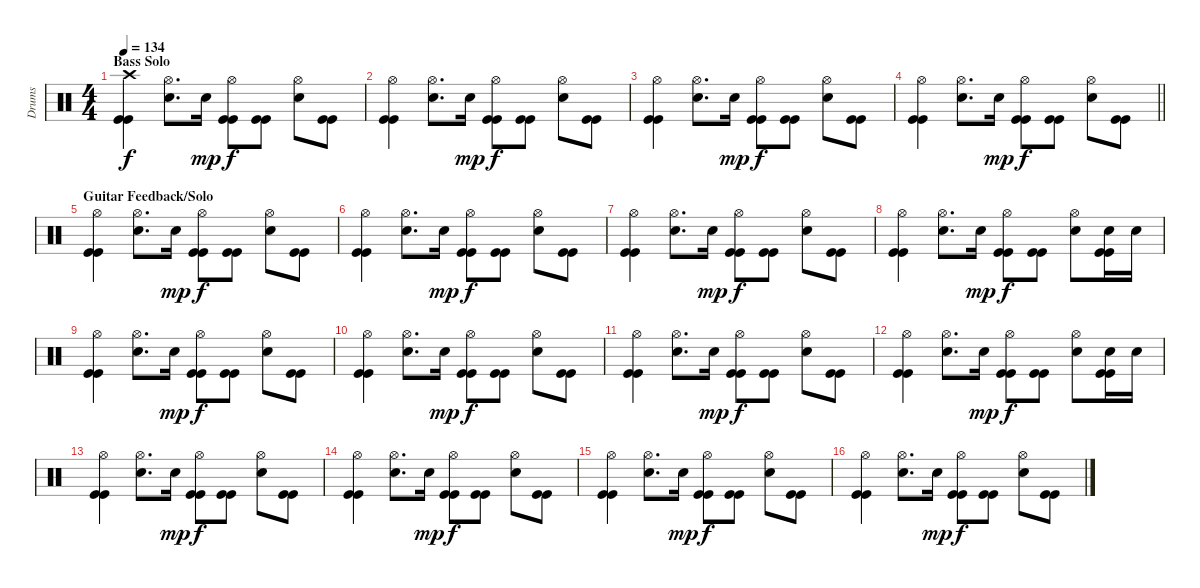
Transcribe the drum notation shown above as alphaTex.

\track ("Drums" "Drums") {instrument percussion}
\staff {score}
\articulation defaults
\ts (4 4)
\section ("" "Bass Solo")
\tempo 134
\clef neutral
\ks c
("Crash high (hit)" "Kick (hit)" "Kick (hit)").4{dy f} ("Hi-Hat (open)" "Electric Snare (hit)").8{d} "Electric Snare (hit)".16{dy mp} ("Hi-Hat (open)" "Kick (hit)" "Kick (hit)").8{dy f} ("Kick (hit)" "Kick (hit)").8 ("Hi-Hat (open)" "Electric Snare (hit)").8 ("Kick (hit)" "Kick (hit)").8 |
("Hi-Hat (open)" "Kick (hit)" "Kick (hit)").4 ("Hi-Hat (open)" "Electric Snare (hit)").8{d} "Electric Snare (hit)".16{dy mp} ("Hi-Hat (open)" "Kick (hit)" "Kick (hit)").8{dy f} ("Kick (hit)" "Kick (hit)").8 ("Hi-Hat (open)" "Electric Snare (hit)").8 ("Kick (hit)" "Kick (hit)").8 |
("Hi-Hat (open)" "Kick (hit)" "Kick (hit)").4 ("Hi-Hat (open)" "Electric Snare (hit)").8{d} "Electric Snare (hit)".16{dy mp} ("Hi-Hat (open)" "Kick (hit)" "Kick (hit)").8{dy f} ("Kick (hit)" "Kick (hit)").8 ("Hi-Hat (open)" "Electric Snare (hit)").8 ("Kick (hit)" "Kick (hit)").8 |
\barLineRight lightlight
("Hi-Hat (open)" "Kick (hit)" "Kick (hit)").4 ("Hi-Hat (open)" "Electric Snare (hit)").8{d} "Electric Snare (hit)".16{dy mp} ("Hi-Hat (open)" "Kick (hit)" "Kick (hit)").8{dy f} ("Kick (hit)" "Kick (hit)").8 ("Hi-Hat (open)" "Electric Snare (hit)").8 ("Kick (hit)" "Kick (hit)").8 |
\section ("" "Guitar Feedback/Solo")
("Hi-Hat (open)" "Kick (hit)" "Kick (hit)").4 ("Hi-Hat (open)" "Electric Snare (hit)").8{d} "Electric Snare (hit)".16{dy mp} ("Hi-Hat (open)" "Kick (hit)" "Kick (hit)").8{dy f} ("Kick (hit)" "Kick (hit)").8 ("Hi-Hat (open)" "Electric Snare (hit)").8 ("Kick (hit)" "Kick (hit)").8 |
("Hi-Hat (open)" "Kick (hit)" "Kick (hit)").4 ("Hi-Hat (open)" "Electric Snare (hit)").8{d} "Electric Snare (hit)".16{dy mp} ("Hi-Hat (open)" "Kick (hit)" "Kick (hit)").8{dy f} ("Kick (hit)" "Kick (hit)").8 ("Hi-Hat (open)" "Electric Snare (hit)").8 ("Kick (hit)" "Kick (hit)").8 |
("Hi-Hat (open)" "Kick (hit)" "Kick (hit)").4 ("Hi-Hat (open)" "Electric Snare (hit)").8{d} "Electric Snare (hit)".16{dy mp} ("Hi-Hat (open)" "Kick (hit)" "Kick (hit)").8{dy f} ("Kick (hit)" "Kick (hit)").8 ("Hi-Hat (open)" "Electric Snare (hit)").8 ("Kick (hit)" "Kick (hit)").8 |
("Hi-Hat (open)" "Kick (hit)" "Kick (hit)").4 ("Hi-Hat (open)" "Electric Snare (hit)").8{d} "Electric Snare (hit)".16{dy mp} ("Hi-Hat (open)" "Kick (hit)" "Kick (hit)").8{dy f} ("Kick (hit)" "Kick (hit)").8 ("Hi-Hat (open)" "Electric Snare (hit)").8 ("Electric Snare (hit)" "Kick (hit)" "Kick (hit)").16 "Electric Snare (hit)".16 |
("Hi-Hat (open)" "Kick (hit)" "Kick (hit)").4 ("Hi-Hat (open)" "Electric Snare (hit)").8{d} "Electric Snare (hit)".16{dy mp} ("Hi-Hat (open)" "Kick (hit)" "Kick (hit)").8{dy f} ("Kick (hit)" "Kick (hit)").8 ("Hi-Hat (open)" "Electric Snare (hit)").8 ("Kick (hit)" "Kick (hit)").8 |
("Hi-Hat (open)" "Kick (hit)" "Kick (hit)").4 ("Hi-Hat (open)" "Electric Snare (hit)").8{d} "Electric Snare (hit)".16{dy mp} ("Hi-Hat (open)" "Kick (hit)" "Kick (hit)").8{dy f} ("Kick (hit)" "Kick (hit)").8 ("Hi-Hat (open)" "Electric Snare (hit)").8 ("Kick (hit)" "Kick (hit)").8 |
("Hi-Hat (open)" "Kick (hit)" "Kick (hit)").4 ("Hi-Hat (open)" "Electric Snare (hit)").8{d} "Electric Snare (hit)".16{dy mp} ("Hi-Hat (open)" "Kick (hit)" "Kick (hit)").8{dy f} ("Kick (hit)" "Kick (hit)").8 ("Hi-Hat (open)" "Electric Snare (hit)").8 ("Kick (hit)" "Kick (hit)").8 |
("Hi-Hat (open)" "Kick (hit)" "Kick (hit)").4 ("Hi-Hat (open)" "Electric Snare (hit)").8{d} "Electric Snare (hit)".16{dy mp} ("Hi-Hat (open)" "Kick (hit)" "Kick (hit)").8{dy f} ("Kick (hit)" "Kick (hit)").8 ("Hi-Hat (open)" "Electric Snare (hit)").8 ("Electric Snare (hit)" "Kick (hit)" "Kick (hit)").16 "Electric Snare (hit)".16 |
("Hi-Hat (open)" "Kick (hit)" "Kick (hit)").4 ("Hi-Hat (open)" "Electric Snare (hit)").8{d} "Electric Snare (hit)".16{dy mp} ("Hi-Hat (open)" "Kick (hit)" "Kick (hit)").8{dy f} ("Kick (hit)" "Kick (hit)").8 ("Hi-Hat (open)" "Electric Snare (hit)").8 ("Kick (hit)" "Kick (hit)").8 |
("Hi-Hat (open)" "Kick (hit)" "Kick (hit)").4 ("Hi-Hat (open)" "Electric Snare (hit)").8{d} "Electric Snare (hit)".16{dy mp} ("Hi-Hat (open)" "Kick (hit)" "Kick (hit)").8{dy f} ("Kick (hit)" "Kick (hit)").8 ("Hi-Hat (open)" "Electric Snare (hit)").8 ("Kick (hit)" "Kick (hit)").8 |
("Hi-Hat (open)" "Kick (hit)" "Kick (hit)").4 ("Hi-Hat (open)" "Electric Snare (hit)").8{d} "Electric Snare (hit)".16{dy mp} ("Hi-Hat (open)" "Kick (hit)" "Kick (hit)").8{dy f} ("Kick (hit)" "Kick (hit)").8 ("Hi-Hat (open)" "Electric Snare (hit)").8 ("Kick (hit)" "Kick (hit)").8 |
("Hi-Hat (open)" "Kick (hit)" "Kick (hit)").4 ("Hi-Hat (open)" "Electric Snare (hit)").8{d} "Electric Snare (hit)".16{dy mp} ("Hi-Hat (open)" "Kick (hit)" "Kick (hit)").8{dy f} ("Kick (hit)" "Kick (hit)").8 ("Hi-Hat (open)" "Electric Snare (hit)").8 ("Kick (hit)" "Kick (hit)").8
